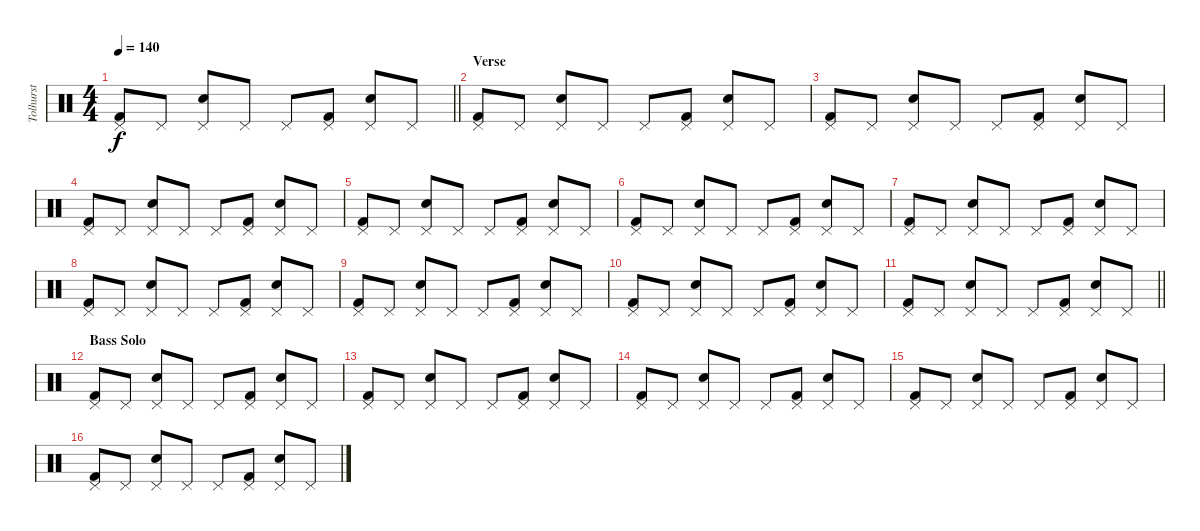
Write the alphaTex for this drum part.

\track ("Tolhurst" "Tolhurst") {instrument percussion}
\staff {score}
\articulation defaults
\ts (4 4)
\tempo 140
\clef neutral
\barLineRight lightlight
\ks c
("Kick (hit) 2" "Pedal Hi-Hat (hit)").8{dy f} "Pedal Hi-Hat (hit)".8 ("Snare (hit) 2" "Pedal Hi-Hat (hit)").8 "Pedal Hi-Hat (hit)".8 "Pedal Hi-Hat (hit)".8 ("Kick (hit) 2" "Pedal Hi-Hat (hit)").8 ("Snare (hit) 2" "Pedal Hi-Hat (hit)").8 "Pedal Hi-Hat (hit)".8 |
\section ("" "Verse")
("Kick (hit) 2" "Pedal Hi-Hat (hit)").8 "Pedal Hi-Hat (hit)".8 ("Snare (hit) 2" "Pedal Hi-Hat (hit)").8 "Pedal Hi-Hat (hit)".8 "Pedal Hi-Hat (hit)".8 ("Kick (hit) 2" "Pedal Hi-Hat (hit)").8 ("Snare (hit) 2" "Pedal Hi-Hat (hit)").8 "Pedal Hi-Hat (hit)".8 |
("Kick (hit) 2" "Pedal Hi-Hat (hit)").8 "Pedal Hi-Hat (hit)".8 ("Snare (hit) 2" "Pedal Hi-Hat (hit)").8 "Pedal Hi-Hat (hit)".8 "Pedal Hi-Hat (hit)".8 ("Kick (hit) 2" "Pedal Hi-Hat (hit)").8 ("Snare (hit) 2" "Pedal Hi-Hat (hit)").8 "Pedal Hi-Hat (hit)".8 |
("Kick (hit) 2" "Pedal Hi-Hat (hit)").8 "Pedal Hi-Hat (hit)".8 ("Snare (hit) 2" "Pedal Hi-Hat (hit)").8 "Pedal Hi-Hat (hit)".8 "Pedal Hi-Hat (hit)".8 ("Kick (hit) 2" "Pedal Hi-Hat (hit)").8 ("Snare (hit) 2" "Pedal Hi-Hat (hit)").8 "Pedal Hi-Hat (hit)".8 |
("Kick (hit) 2" "Pedal Hi-Hat (hit)").8 "Pedal Hi-Hat (hit)".8 ("Snare (hit) 2" "Pedal Hi-Hat (hit)").8 "Pedal Hi-Hat (hit)".8 "Pedal Hi-Hat (hit)".8 ("Kick (hit) 2" "Pedal Hi-Hat (hit)").8 ("Snare (hit) 2" "Pedal Hi-Hat (hit)").8 "Pedal Hi-Hat (hit)".8 |
("Kick (hit) 2" "Pedal Hi-Hat (hit)").8 "Pedal Hi-Hat (hit)".8 ("Snare (hit) 2" "Pedal Hi-Hat (hit)").8 "Pedal Hi-Hat (hit)".8 "Pedal Hi-Hat (hit)".8 ("Kick (hit) 2" "Pedal Hi-Hat (hit)").8 ("Snare (hit) 2" "Pedal Hi-Hat (hit)").8 "Pedal Hi-Hat (hit)".8 |
("Kick (hit) 2" "Pedal Hi-Hat (hit)").8 "Pedal Hi-Hat (hit)".8 ("Snare (hit) 2" "Pedal Hi-Hat (hit)").8 "Pedal Hi-Hat (hit)".8 "Pedal Hi-Hat (hit)".8 ("Kick (hit) 2" "Pedal Hi-Hat (hit)").8 ("Snare (hit) 2" "Pedal Hi-Hat (hit)").8 "Pedal Hi-Hat (hit)".8 |
("Kick (hit) 2" "Pedal Hi-Hat (hit)").8 "Pedal Hi-Hat (hit)".8 ("Snare (hit) 2" "Pedal Hi-Hat (hit)").8 "Pedal Hi-Hat (hit)".8 "Pedal Hi-Hat (hit)".8 ("Kick (hit) 2" "Pedal Hi-Hat (hit)").8 ("Snare (hit) 2" "Pedal Hi-Hat (hit)").8 "Pedal Hi-Hat (hit)".8 |
("Kick (hit) 2" "Pedal Hi-Hat (hit)").8 "Pedal Hi-Hat (hit)".8 ("Snare (hit) 2" "Pedal Hi-Hat (hit)").8 "Pedal Hi-Hat (hit)".8 "Pedal Hi-Hat (hit)".8 ("Kick (hit) 2" "Pedal Hi-Hat (hit)").8 ("Snare (hit) 2" "Pedal Hi-Hat (hit)").8 "Pedal Hi-Hat (hit)".8 |
("Kick (hit) 2" "Pedal Hi-Hat (hit)").8 "Pedal Hi-Hat (hit)".8 ("Snare (hit) 2" "Pedal Hi-Hat (hit)").8 "Pedal Hi-Hat (hit)".8 "Pedal Hi-Hat (hit)".8 ("Kick (hit) 2" "Pedal Hi-Hat (hit)").8 ("Snare (hit) 2" "Pedal Hi-Hat (hit)").8 "Pedal Hi-Hat (hit)".8 |
\barLineRight lightlight
("Kick (hit) 2" "Pedal Hi-Hat (hit)").8 "Pedal Hi-Hat (hit)".8 ("Snare (hit) 2" "Pedal Hi-Hat (hit)").8 "Pedal Hi-Hat (hit)".8 "Pedal Hi-Hat (hit)".8 ("Kick (hit) 2" "Pedal Hi-Hat (hit)").8 ("Snare (hit) 2" "Pedal Hi-Hat (hit)").8 "Pedal Hi-Hat (hit)".8 |
\section ("" "Bass Solo")
("Kick (hit) 2" "Pedal Hi-Hat (hit)").8 "Pedal Hi-Hat (hit)".8 ("Snare (hit) 2" "Pedal Hi-Hat (hit)").8 "Pedal Hi-Hat (hit)".8 "Pedal Hi-Hat (hit)".8 ("Kick (hit) 2" "Pedal Hi-Hat (hit)").8 ("Snare (hit) 2" "Pedal Hi-Hat (hit)").8 "Pedal Hi-Hat (hit)".8 |
("Kick (hit) 2" "Pedal Hi-Hat (hit)").8 "Pedal Hi-Hat (hit)".8 ("Snare (hit) 2" "Pedal Hi-Hat (hit)").8 "Pedal Hi-Hat (hit)".8 "Pedal Hi-Hat (hit)".8 ("Kick (hit) 2" "Pedal Hi-Hat (hit)").8 ("Snare (hit) 2" "Pedal Hi-Hat (hit)").8 "Pedal Hi-Hat (hit)".8 |
("Kick (hit) 2" "Pedal Hi-Hat (hit)").8 "Pedal Hi-Hat (hit)".8 ("Snare (hit) 2" "Pedal Hi-Hat (hit)").8 "Pedal Hi-Hat (hit)".8 "Pedal Hi-Hat (hit)".8 ("Kick (hit) 2" "Pedal Hi-Hat (hit)").8 ("Snare (hit) 2" "Pedal Hi-Hat (hit)").8 "Pedal Hi-Hat (hit)".8 |
("Kick (hit) 2" "Pedal Hi-Hat (hit)").8 "Pedal Hi-Hat (hit)".8 ("Snare (hit) 2" "Pedal Hi-Hat (hit)").8 "Pedal Hi-Hat (hit)".8 "Pedal Hi-Hat (hit)".8 ("Kick (hit) 2" "Pedal Hi-Hat (hit)").8 ("Snare (hit) 2" "Pedal Hi-Hat (hit)").8 "Pedal Hi-Hat (hit)".8 |
("Kick (hit) 2" "Pedal Hi-Hat (hit)").8 "Pedal Hi-Hat (hit)".8 ("Snare (hit) 2" "Pedal Hi-Hat (hit)").8 "Pedal Hi-Hat (hit)".8 "Pedal Hi-Hat (hit)".8 ("Kick (hit) 2" "Pedal Hi-Hat (hit)").8 ("Snare (hit) 2" "Pedal Hi-Hat (hit)").8 "Pedal Hi-Hat (hit)".8
